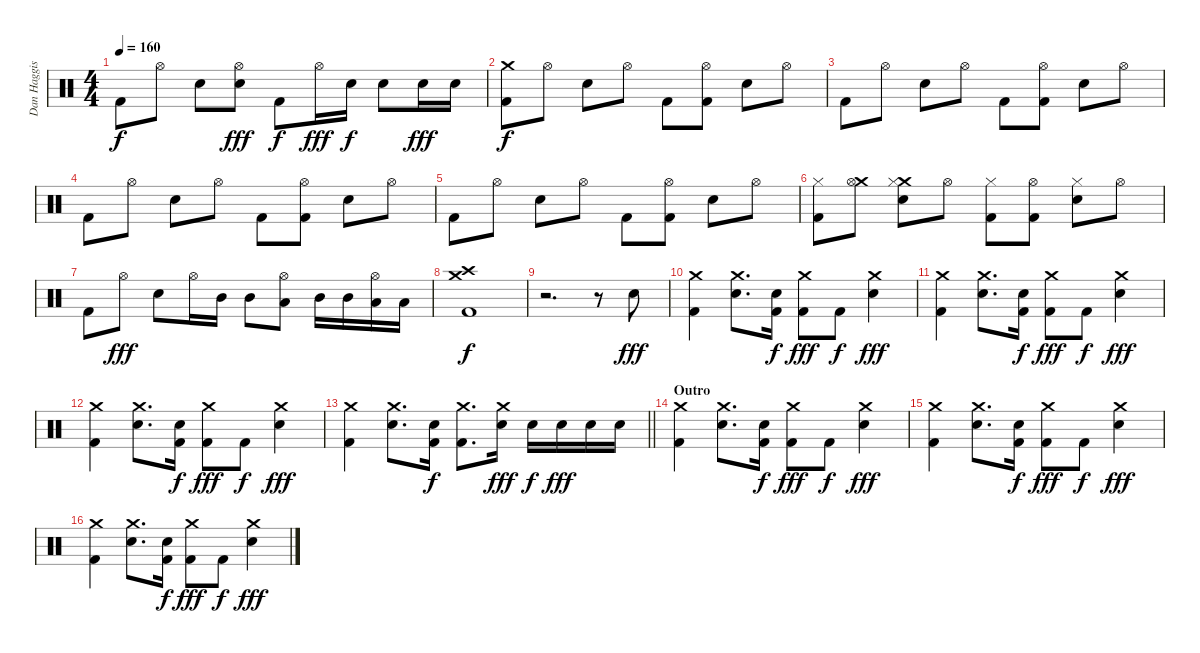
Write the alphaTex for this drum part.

\track ("Dan Haggis" "Dan Haggis") {instrument percussion}
\staff {score}
\articulation defaults
\ts (4 4)
\tempo 160
\clef neutral
\ks c "Kick (hit) 2".8{dy f} "Hi-Hat (open)".8 "Electric Snare (hit)".8
("Hi-Hat (open)" "Electric Snare (hit)").8{dy fff} "Kick (hit) 2".8{dy f} "Hi-Hat (open)".16{dy fff} "Electric Snare (hit)".16{dy f} "Electric Snare (hit)".8 "Electric Snare (hit)".16{dy fff} "Electric Snare (hit)".16 |
("Crash medium (hit)" "Kick (hit) 2").8{dy f} "Hi-Hat (open)".8 "Electric Snare (hit)".8 "Hi-Hat (open)".8 "Kick (hit) 2".8 ("Hi-Hat (open)" "Kick (hit) 2").8 "Electric Snare (hit)".8 "Hi-Hat (open)".8 |
"Kick (hit) 2".8 "Hi-Hat (open)".8 "Electric Snare (hit)".8 "Hi-Hat (open)".8 "Kick (hit) 2".8 ("Hi-Hat (open)" "Kick (hit) 2").8 "Electric Snare (hit)".8 "Hi-Hat (open)".8 |
"Kick (hit) 2".8 "Hi-Hat (open)".8 "Electric Snare (hit)".8 "Hi-Hat (open)".8 "Kick (hit) 2".8 ("Hi-Hat (open)" "Kick (hit) 2").8 "Electric Snare (hit)".8 "Hi-Hat (open)".8 |
"Kick (hit) 2".8 "Hi-Hat (open)".8 "Electric Snare (hit)".8 "Hi-Hat (open)".8 "Kick (hit) 2".8 ("Hi-Hat (open)" "Kick (hit) 2").8 "Electric Snare (hit)".8 "Hi-Hat (open)".8 |
("Hi-Hat (closed)" "Kick (hit) 2").8 ("Crash medium (hit)" "Hi-Hat (open)").8 ("Crash medium (hit)" "Hi-Hat (closed)" "Electric Snare (hit)").8 "Hi-Hat (open)".8 ("Hi-Hat (closed)" "Kick (hit) 2").8 ("Hi-Hat (open)" "Kick (hit) 2").8 ("Electric Snare (hit)" "Hi-Hat (closed)").8 "Hi-Hat (open)".8 |
"Kick (hit) 2".8 "Hi-Hat (open)".8{dy fff} "Electric Snare (hit)".8 "Hi-Hat (open)".16 "Mid Tom (hit)".16 "Mid Tom (hit)".8 ("Hi-Hat (open)" "Low Tom (hit)").8 "Mid Tom (hit)".16 "Mid Tom (hit)".16 ("Hi-Hat (open)" "Low Tom (hit)").16 "Low Tom (hit)".16 |
("Crash high (hit)" "Crash medium (hit)" "Kick (hit) 2").1{dy f} |
r.2{d} r.8 "Electric Snare (hit)".8{dy fff} |
("Crash medium (hit)" "Kick (hit) 2").4 ("Crash medium (hit)" "Electric Snare (hit)").8{d} ("Kick (hit) 2" "Electric Snare (hit)").16{dy f} ("Crash medium (hit)" "Kick (hit) 2").8{dy fff} "Kick (hit) 2".8{dy f} ("Crash medium (hit)" "Electric Snare (hit)").4{dy fff} |
("Crash medium (hit)" "Kick (hit) 2").4 ("Crash medium (hit)" "Electric Snare (hit)").8{d} ("Kick (hit) 2" "Electric Snare (hit)").16{dy f} ("Crash medium (hit)" "Kick (hit) 2").8{dy fff} "Kick (hit) 2".8{dy f} ("Crash medium (hit)" "Electric Snare (hit)").4{dy fff} |
("Crash medium (hit)" "Kick (hit) 2").4 ("Crash medium (hit)" "Electric Snare (hit)").8{d} ("Kick (hit) 2" "Electric Snare (hit)").16{dy f} ("Crash medium (hit)" "Kick (hit) 2").8{dy fff} "Kick (hit) 2".8{dy f} ("Crash medium (hit)" "Electric Snare (hit)").4{dy fff} |
\barLineRight lightlight
("Crash medium (hit)" "Kick (hit) 2").4 ("Crash medium (hit)" "Electric Snare (hit)").8{d} ("Kick (hit) 2" "Electric Snare (hit)").16{dy f} ("Crash medium (hit)" "Kick (hit) 2").8{d} ("Crash medium (hit)" "Electric Snare (hit)").16{dy fff} "Electric Snare (hit)".16{dy f} "Electric Snare (hit)".16{dy fff} "Electric Snare (hit)".16 "Electric Snare (hit)".16 |
\section ("" "Outro")
("Crash medium (hit)" "Kick (hit) 2").4 ("Crash medium (hit)" "Electric Snare (hit)").8{d} ("Kick (hit) 2" "Electric Snare (hit)").16{dy f} ("Crash medium (hit)" "Kick (hit) 2").8{dy fff} "Kick (hit) 2".8{dy f} ("Crash medium (hit)" "Electric Snare (hit)").4{dy fff} |
("Crash medium (hit)" "Kick (hit) 2").4 ("Crash medium (hit)" "Electric Snare (hit)").8{d} ("Kick (hit) 2" "Electric Snare (hit)").16{dy f} ("Crash medium (hit)" "Kick (hit) 2").8{dy fff} "Kick (hit) 2".8{dy f} ("Crash medium (hit)" "Electric Snare (hit)").4{dy fff} |
("Crash medium (hit)" "Kick (hit) 2").4 ("Crash medium (hit)" "Electric Snare (hit)").8{d} ("Kick (hit) 2" "Electric Snare (hit)").16{dy f} ("Crash medium (hit)" "Kick (hit) 2").8{dy fff} "Kick (hit) 2".8{dy f} ("Crash medium (hit)" "Electric Snare (hit)").4{dy fff}
